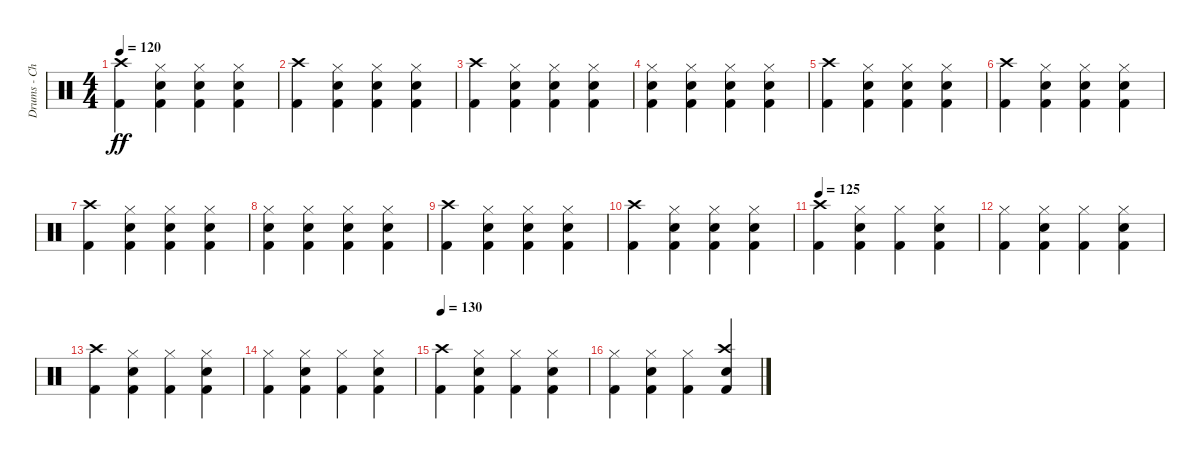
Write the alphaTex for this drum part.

\track ("Drums - Chris Frantz" "Drums - Ch") {instrument percussion}
\staff {score}
\articulation defaults
\ts (4 4)
\tempo 120
\clef neutral
\ks c
("Kick (hit) 2" "Crash high (hit)").4{dy ff} ("Kick (hit) 2" "Snare (hit) 2" "Hi-Hat (closed)").4 ("Kick (hit) 2" "Snare (hit) 2" "Hi-Hat (closed)").4 ("Kick (hit) 2" "Snare (hit) 2" "Hi-Hat (closed)").4 |
("Kick (hit) 2" "Crash high (hit)").4 ("Kick (hit) 2" "Snare (hit) 2" "Hi-Hat (closed)").4 ("Kick (hit) 2" "Snare (hit) 2" "Hi-Hat (closed)").4 ("Kick (hit) 2" "Snare (hit) 2" "Hi-Hat (closed)").4 |
("Kick (hit) 2" "Crash high (hit)").4 ("Kick (hit) 2" "Snare (hit) 2" "Hi-Hat (closed)").4 ("Kick (hit) 2" "Snare (hit) 2" "Hi-Hat (closed)").4 ("Kick (hit) 2" "Snare (hit) 2" "Hi-Hat (closed)").4 |
("Kick (hit) 2" "Snare (hit) 2" "Hi-Hat (closed)").4 ("Kick (hit) 2" "Snare (hit) 2" "Hi-Hat (closed)").4 ("Kick (hit) 2" "Snare (hit) 2" "Hi-Hat (closed)").4 ("Kick (hit) 2" "Snare (hit) 2" "Hi-Hat (closed)").4 |
("Kick (hit) 2" "Crash high (hit)").4 ("Kick (hit) 2" "Snare (hit) 2" "Hi-Hat (closed)").4 ("Kick (hit) 2" "Snare (hit) 2" "Hi-Hat (closed)").4 ("Kick (hit) 2" "Snare (hit) 2" "Hi-Hat (closed)").4 |
("Kick (hit) 2" "Crash high (hit)").4 ("Kick (hit) 2" "Snare (hit) 2" "Hi-Hat (closed)").4 ("Kick (hit) 2" "Snare (hit) 2" "Hi-Hat (closed)").4 ("Kick (hit) 2" "Snare (hit) 2" "Hi-Hat (closed)").4 |
("Kick (hit) 2" "Crash high (hit)").4 ("Kick (hit) 2" "Snare (hit) 2" "Hi-Hat (closed)").4 ("Kick (hit) 2" "Snare (hit) 2" "Hi-Hat (closed)").4 ("Kick (hit) 2" "Snare (hit) 2" "Hi-Hat (closed)").4 |
("Kick (hit) 2" "Snare (hit) 2" "Hi-Hat (closed)").4 ("Kick (hit) 2" "Snare (hit) 2" "Hi-Hat (closed)").4 ("Kick (hit) 2" "Snare (hit) 2" "Hi-Hat (closed)").4 ("Kick (hit) 2" "Snare (hit) 2" "Hi-Hat (closed)").4 |
("Kick (hit) 2" "Crash high (hit)").4 ("Kick (hit) 2" "Snare (hit) 2" "Hi-Hat (closed)").4 ("Kick (hit) 2" "Snare (hit) 2" "Hi-Hat (closed)").4 ("Kick (hit) 2" "Snare (hit) 2" "Hi-Hat (closed)").4 |
("Kick (hit) 2" "Crash high (hit)").4 ("Kick (hit) 2" "Snare (hit) 2" "Hi-Hat (closed)").4 ("Kick (hit) 2" "Snare (hit) 2" "Hi-Hat (closed)").4 ("Kick (hit) 2" "Snare (hit) 2" "Hi-Hat (closed)").4 |
\tempo 125
("Kick (hit) 2" "Crash high (hit)").4 ("Kick (hit) 2" "Snare (hit) 2" "Hi-Hat (closed)").4 ("Kick (hit) 2" "Hi-Hat (closed)").4 ("Kick (hit) 2" "Snare (hit) 2" "Hi-Hat (closed)").4 |
("Kick (hit) 2" "Hi-Hat (closed)").4 ("Kick (hit) 2" "Snare (hit) 2" "Hi-Hat (closed)").4 ("Kick (hit) 2" "Hi-Hat (closed)").4 ("Kick (hit) 2" "Snare (hit) 2" "Hi-Hat (closed)").4 |
("Kick (hit) 2" "Crash high (hit)").4 ("Kick (hit) 2" "Snare (hit) 2" "Hi-Hat (closed)").4 ("Kick (hit) 2" "Hi-Hat (closed)").4 ("Kick (hit) 2" "Snare (hit) 2" "Hi-Hat (closed)").4 |
("Kick (hit) 2" "Hi-Hat (closed)").4 ("Kick (hit) 2" "Snare (hit) 2" "Hi-Hat (closed)").4 ("Kick (hit) 2" "Hi-Hat (closed)").4 ("Kick (hit) 2" "Snare (hit) 2" "Hi-Hat (closed)").4 |
\tempo 130
("Kick (hit) 2" "Crash high (hit)").4 ("Kick (hit) 2" "Snare (hit) 2" "Hi-Hat (closed)").4 ("Kick (hit) 2" "Hi-Hat (closed)").4 ("Kick (hit) 2" "Snare (hit) 2" "Hi-Hat (closed)").4 |
("Kick (hit) 2" "Hi-Hat (closed)").4 ("Kick (hit) 2" "Snare (hit) 2" "Hi-Hat (closed)").4 ("Kick (hit) 2" "Hi-Hat (closed)").4 ("Kick (hit) 2" "Snare (hit) 2" "Crash high (hit)").4
